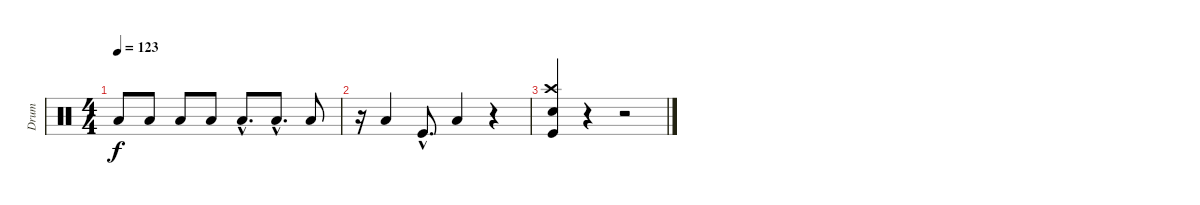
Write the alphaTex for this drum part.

\track ("Drum" "Drum") {instrument percussion}
\staff {score}
\articulation defaults
\ts (4 4)
\tempo 123
\clef neutral
\ks c "Low Tom (hit)".8{dy f} "Low Tom (hit)".8 "Low Tom (hit)".8 "Low Tom (hit)".8 "Low Tom (hit)"{hac}.8{d} "Low Tom (hit)"{hac}.8{d} "Low Tom (hit)".8
|
r.16 "Low Tom (hit)".4 "Kick (hit)"{hac}.8{d} "Low Tom (hit)".4 r.4 |
("Crash high (hit)" "Snare (hit) 2" "Kick (hit)").4 r.4 r.2
